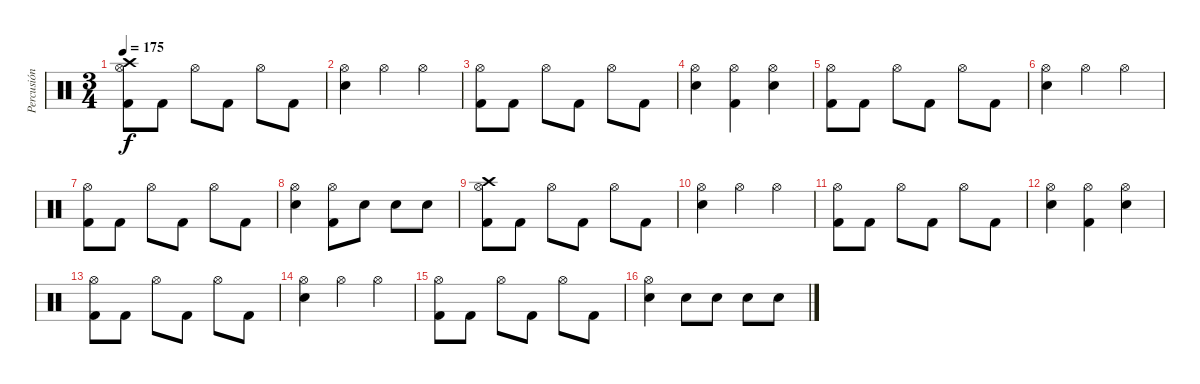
\track ("Percusión" "Percusión") {instrument percussion}
\staff {score}
\articulation defaults
\ts (3 4)
\tempo 175
\clef neutral
\ks c
("Crash high (hit)" "Hi-Hat (open)" "Kick (hit) 2").8{dy f} "Kick (hit) 2".8 "Hi-Hat (open)".8 "Kick (hit) 2".8 "Hi-Hat (open)".8 "Kick (hit) 2".8 |
("Hi-Hat (open)" "Snare (hit) 2").4 "Hi-Hat (open)".4 "Hi-Hat (open)".4 |
("Hi-Hat (open)" "Kick (hit) 2").8 "Kick (hit) 2".8 "Hi-Hat (open)".8 "Kick (hit) 2".8 "Hi-Hat (open)".8 "Kick (hit) 2".8 |
("Hi-Hat (open)" "Snare (hit) 2").4 ("Hi-Hat (open)" "Kick (hit) 2").4 ("Hi-Hat (open)" "Snare (hit) 2").4 |
("Hi-Hat (open)" "Kick (hit) 2").8 "Kick (hit) 2".8 "Hi-Hat (open)".8 "Kick (hit) 2".8 "Hi-Hat (open)".8 "Kick (hit) 2".8 |
("Hi-Hat (open)" "Snare (hit) 2").4 "Hi-Hat (open)".4 "Hi-Hat (open)".4 |
("Hi-Hat (open)" "Kick (hit) 2").8 "Kick (hit) 2".8 "Hi-Hat (open)".8 "Kick (hit) 2".8 "Hi-Hat (open)".8 "Kick (hit) 2".8 |
("Hi-Hat (open)" "Snare (hit) 2").4 ("Hi-Hat (open)" "Kick (hit) 2").8 "Snare (hit) 2".8 "Snare (hit) 2".8 "Snare (hit) 2".8 |
("Crash high (hit)" "Hi-Hat (open)" "Kick (hit) 2").8 "Kick (hit) 2".8 "Hi-Hat (open)".8 "Kick (hit) 2".8 "Hi-Hat (open)".8 "Kick (hit) 2".8 |
("Hi-Hat (open)" "Snare (hit) 2").4 "Hi-Hat (open)".4 "Hi-Hat (open)".4 |
("Hi-Hat (open)" "Kick (hit) 2").8 "Kick (hit) 2".8 "Hi-Hat (open)".8 "Kick (hit) 2".8 "Hi-Hat (open)".8 "Kick (hit) 2".8 |
("Hi-Hat (open)" "Snare (hit) 2").4 ("Hi-Hat (open)" "Kick (hit) 2").4 ("Hi-Hat (open)" "Snare (hit) 2").4 |
("Hi-Hat (open)" "Kick (hit) 2").8 "Kick (hit) 2".8 "Hi-Hat (open)".8 "Kick (hit) 2".8 "Hi-Hat (open)".8 "Kick (hit) 2".8 |
("Hi-Hat (open)" "Snare (hit) 2").4 "Hi-Hat (open)".4 "Hi-Hat (open)".4 |
("Hi-Hat (open)" "Kick (hit) 2").8 "Kick (hit) 2".8 "Hi-Hat (open)".8 "Kick (hit) 2".8 "Hi-Hat (open)".8 "Kick (hit) 2".8 |
("Hi-Hat (open)" "Snare (hit) 2").4 "Snare (hit) 2".8 "Snare (hit) 2".8 "Snare (hit) 2".8 "Snare (hit) 2".8
